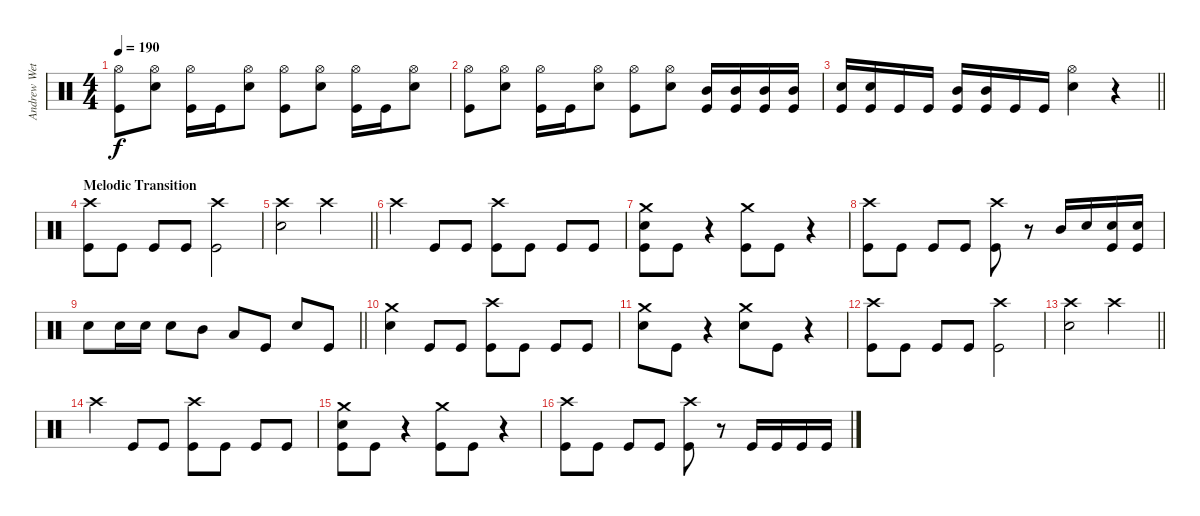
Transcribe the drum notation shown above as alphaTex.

\track ("Andrew Wetzel" "Andrew Wet") {instrument percussion}
\staff {score}
\articulation defaults
\ts (4 4)
\tempo 190
\clef neutral
\ks c
("Hi-Hat (open)" "Kick (hit)").8{dy f} ("Hi-Hat (open)" "Snare (hit) 2").8 ("Hi-Hat (open)" "Kick (hit)").16 "Kick (hit)".16 ("Hi-Hat (open)" "Snare (hit) 2").8 ("Hi-Hat (open)" "Kick (hit)").8 ("Hi-Hat (open)" "Snare (hit) 2").8 ("Hi-Hat (open)" "Kick (hit)").16 "Kick (hit)".16 ("Hi-Hat (open)" "Snare (hit) 2").8 |
("Hi-Hat (open)" "Kick (hit)").8 ("Hi-Hat (open)" "Snare (hit) 2").8 ("Hi-Hat (open)" "Kick (hit)").16 "Kick (hit)".16 ("Hi-Hat (open)" "Snare (hit) 2").8 ("Hi-Hat (open)" "Kick (hit)").8 ("Hi-Hat (open)" "Snare (hit) 2").8 ("Mid Tom (hit)" "Kick (hit)").16 ("Mid Tom (hit)" "Kick (hit)").16 ("Mid Tom (hit)" "Kick (hit)").16 ("Mid Tom (hit)" "Kick (hit)").16 |
\barLineRight lightlight
("Snare (hit) 2" "Kick (hit)").16 ("Snare (hit) 2" "Kick (hit)").16 "Kick (hit)".16 "Kick (hit)".16 ("Mid Tom (hit)" "Kick (hit)").16 ("Mid Tom (hit)" "Kick (hit)").16 "Kick (hit)".16 "Kick (hit)".16 ("Hi-Hat (open)" "Snare (hit) 2").4 r.4{volume 0} |
\section ("" "Melodic Transition")
("Crash high (hit)" "Kick (hit)").8{volume 13} "Kick (hit)".8 "Kick (hit)".8 "Kick (hit)".8 ("Crash high (hit)" "Kick (hit)").2 |
\barLineRight lightlight
("Crash high (hit)" "Snare (hit) 2").2 "Crash high (hit)".2 |
"Crash high (hit)".4 "Kick (hit)".8 "Kick (hit)".8 ("Crash high (hit)" "Kick (hit)").8 "Kick (hit)".8 "Kick (hit)".8 "Kick (hit)".8 |
("Crash medium (hit)" "Snare (hit) 2" "Kick (hit)").8 "Kick (hit)".8 r.4 ("Crash medium (hit)" "Kick (hit)").8 "Kick (hit)".8 r.4 |
("Crash high (hit)" "Kick (hit)").8 "Kick (hit)".8 "Kick (hit)".8 "Kick (hit)".8 ("Crash high (hit)" "Kick (hit)").8 r.8 "Mid Tom (hit)".16 "Snare (hit) 2".16 ("Snare (hit) 2" "Kick (hit)").16 ("Snare (hit) 2" "Kick (hit)").16 |
\barLineRight lightlight "Snare (hit) 2".8 "Snare (hit) 2".16 "Snare (hit) 2".16 "Snare (hit) 2".8 "Mid Tom (hit)".8 "Low Tom (hit)".8 "Kick (hit)".8 "Snare (hit) 2".8 "Kick (hit)".8
|
("Crash medium (hit)" "Snare (hit) 2").4 "Kick (hit)".8 "Kick (hit)".8 ("Crash high (hit)" "Kick (hit)").8 "Kick (hit)".8 "Kick (hit)".8 "Kick (hit)".8 |
("Crash medium (hit)" "Snare (hit) 2").8 "Kick (hit)".8 r.4 ("Crash medium (hit)" "Snare (hit) 2").8 "Kick (hit)".8 r.4 |
("Crash high (hit)" "Kick (hit)").8 "Kick (hit)".8 "Kick (hit)".8 "Kick (hit)".8 ("Crash high (hit)" "Kick (hit)").2 |
\barLineRight lightlight
("Crash high (hit)" "Snare (hit) 2").2 "Crash high (hit)".2 |
"Crash high (hit)".4 "Kick (hit)".8 "Kick (hit)".8 ("Crash high (hit)" "Kick (hit)").8 "Kick (hit)".8 "Kick (hit)".8 "Kick (hit)".8 |
("Crash medium (hit)" "Snare (hit) 2" "Kick (hit)").8 "Kick (hit)".8 r.4 ("Crash medium (hit)" "Kick (hit)").8 "Kick (hit)".8 r.4 |
("Crash high (hit)" "Kick (hit)").8 "Kick (hit)".8 "Kick (hit)".8 "Kick (hit)".8 ("Crash high (hit)" "Kick (hit)").8 r.8 "Kick (hit)".16 "Kick (hit)".16 "Kick (hit)".16 "Kick (hit)".16
